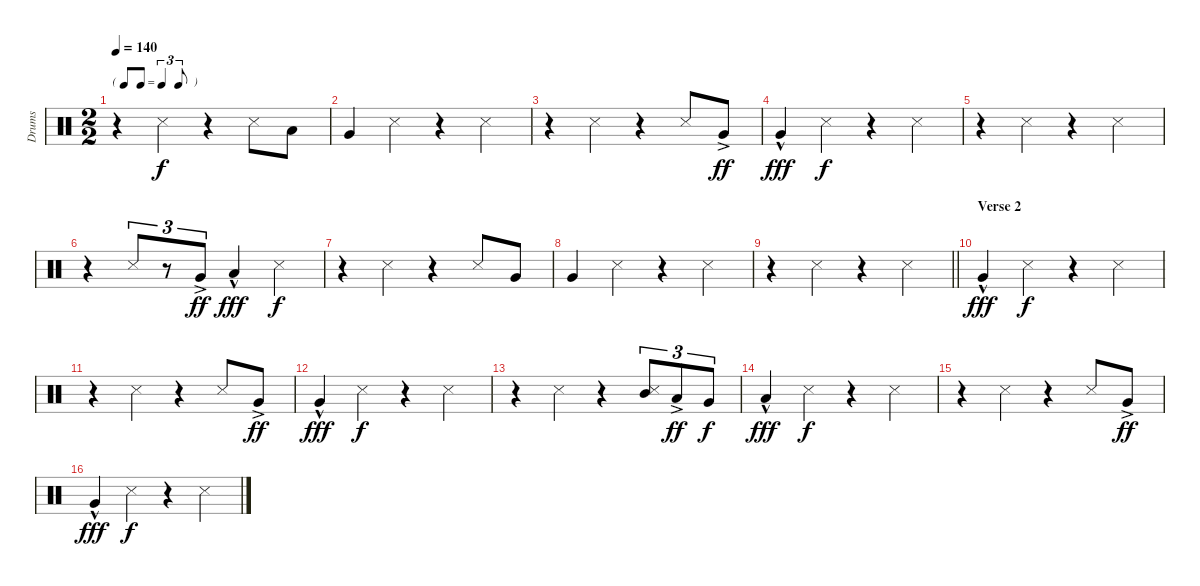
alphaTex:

\track ("Drums" "Drums") {instrument percussion}
\staff {score}
\articulation defaults
\ts (2 2)
\tf triplet8th
\tempo 140
\clef neutral
\ks c
r.4{dy f} "Metronome (hit)".4 r.4 "Metronome (hit)".8 "Low Tom (hit)".8 |
"Very Low Tom (hit)".4 "Metronome (hit)".4 r.4 "Metronome (hit)".4 |
r.4 "Metronome (hit)".4 r.4 "Metronome (hit)".8 "Very Low Tom (hit)"{ac}.8{dy ff} |
"Very Low Tom (hit)"{hac}.4{dy fff} "Metronome (hit)".4{dy f} r.4 "Metronome (hit)".4 |
r.4 "Metronome (hit)".4 r.4 "Metronome (hit)".4 |
r.4 "Metronome (hit)".8{tu (3 2)} r.8{tu (3 2)} "Very Low Tom (hit)"{ac}.8{tu (3 2) dy ff} "Low Floor Tom (hit)"{hac}.4{dy fff} "Metronome (hit)".4{dy f} |
r.4 "Metronome (hit)".4 r.4 "Metronome (hit)".8 "Very Low Tom (hit)".8 |
"Very Low Tom (hit)".4 "Metronome (hit)".4 r.4 "Metronome (hit)".4 |
\barLineRight lightlight
r.4 "Metronome (hit)".4 r.4 "Metronome (hit)".4 |
\section ("" "Verse 2")
"Very Low Tom (hit)"{hac}.4{dy fff} "Metronome (hit)".4{dy f} r.4 "Metronome (hit)".4 |
r.4 "Metronome (hit)".4 r.4 "Metronome (hit)".8 "Very Low Tom (hit)"{ac}.8{dy ff} |
"Very Low Tom (hit)"{hac}.4{dy fff} "Metronome (hit)".4{dy f} r.4 "Metronome (hit)".4 |
r.4 "Metronome (hit)".4 r.4 ("Metronome (hit)" "Mid Tom (hit)").8{tu (3 2)} "Low Tom (hit)"{ac}.8{tu (3 2) dy ff} "Very Low Tom (hit)".8{tu (3 2) dy f} |
"Low Floor Tom (hit)"{hac}.4{dy fff} "Metronome (hit)".4{dy f} r.4 "Metronome (hit)".4 |
r.4 "Metronome (hit)".4 r.4 "Metronome (hit)".8 "Very Low Tom (hit)"{ac}.8{dy ff} |
"Very Low Tom (hit)"{hac}.4{dy fff} "Metronome (hit)".4{dy f} r.4 "Metronome (hit)".4
